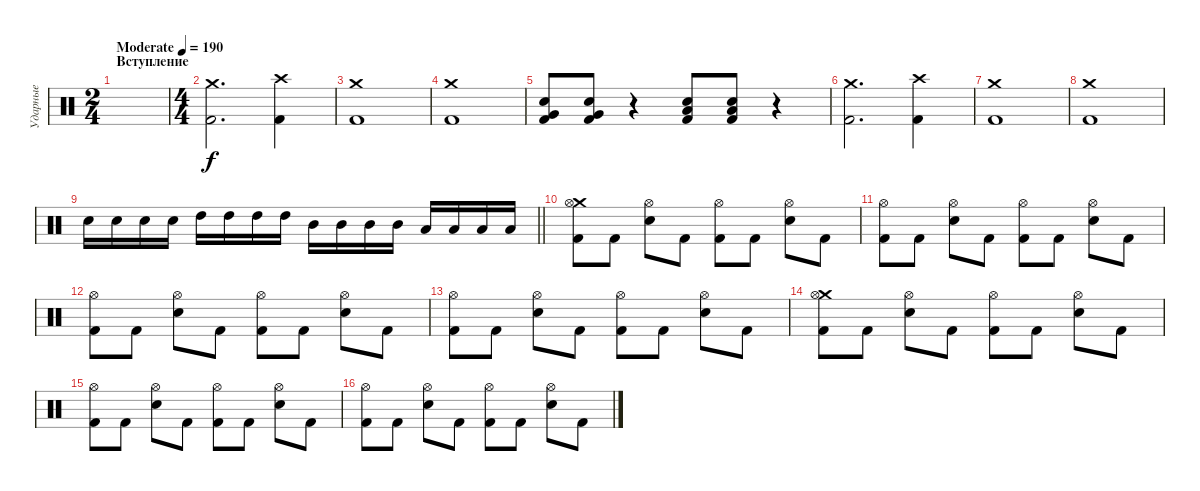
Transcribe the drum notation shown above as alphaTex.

\track ("Ударные" "Ударные") {instrument percussion}
\staff {score}
\articulation defaults
\ts (2 4)
\section ("" "Вступление")
\tempo (190 "Moderate")
\clef neutral
\ks c
|
\ts (4 4)
("Crash medium (hit)" "Kick (hit) 2").2{d} ("Crash high (hit)" "Kick (hit) 2").4 |
("Crash medium (hit)" "Kick (hit) 2").1 |
("Crash medium (hit)" "Kick (hit) 2").1 |
("Kick (hit) 2" "Very Low Tom (hit)" "Electric Snare (hit)").8 ("Kick (hit) 2" "Very Low Tom (hit)" "Electric Snare (hit)").8 r.4 ("Kick (hit) 2" "Low Floor Tom (hit)" "Electric Snare (hit)").8 ("Kick (hit) 2" "Low Floor Tom (hit)" "Electric Snare (hit)").8 r.4 |
("Crash medium (hit)" "Kick (hit) 2").2{d} ("Crash high (hit)" "Kick (hit) 2").4 |
("Crash medium (hit)" "Kick (hit) 2").1 |
("Crash medium (hit)" "Kick (hit) 2").1 |
\barLineRight lightlight "Electric Snare (hit)".16 "Electric Snare (hit)".16 "Electric Snare (hit)".16 "Electric Snare (hit)".16 "High Tom (hit)".16 "High Tom (hit)".16 "High Tom (hit)".16 "High Tom (hit)".16 "Mid Tom (hit)".16 "Mid Tom (hit)".16 "Mid Tom (hit)".16 "Mid Tom (hit)".16 "Low Tom (hit)".16 "Low Tom (hit)".16 "Low Tom (hit)".16 "Low Tom (hit)".16
|
("Crash medium (hit)" "Kick (hit) 2" "Hi-Hat (open)").8 "Kick (hit) 2".8 ("Electric Snare (hit)" "Hi-Hat (open)").8 "Kick (hit) 2".8 ("Kick (hit) 2" "Hi-Hat (open)").8 "Kick (hit) 2".8 ("Electric Snare (hit)" "Hi-Hat (open)").8 "Kick (hit) 2".8 |
("Kick (hit) 2" "Hi-Hat (open)").8 "Kick (hit) 2".8 ("Electric Snare (hit)" "Hi-Hat (open)").8 "Kick (hit) 2".8 ("Kick (hit) 2" "Hi-Hat (open)").8 "Kick (hit) 2".8 ("Electric Snare (hit)" "Hi-Hat (open)").8 "Kick (hit) 2".8 |
("Kick (hit) 2" "Hi-Hat (open)").8 "Kick (hit) 2".8 ("Electric Snare (hit)" "Hi-Hat (open)").8 "Kick (hit) 2".8 ("Kick (hit) 2" "Hi-Hat (open)").8 "Kick (hit) 2".8 ("Electric Snare (hit)" "Hi-Hat (open)").8 "Kick (hit) 2".8 |
("Kick (hit) 2" "Hi-Hat (open)").8 "Kick (hit) 2".8 ("Electric Snare (hit)" "Hi-Hat (open)").8 "Kick (hit) 2".8 ("Kick (hit) 2" "Hi-Hat (open)").8 "Kick (hit) 2".8 ("Electric Snare (hit)" "Hi-Hat (open)").8 "Kick (hit) 2".8 |
("Crash medium (hit)" "Kick (hit) 2" "Hi-Hat (open)").8 "Kick (hit) 2".8 ("Electric Snare (hit)" "Hi-Hat (open)").8 "Kick (hit) 2".8 ("Kick (hit) 2" "Hi-Hat (open)").8 "Kick (hit) 2".8 ("Electric Snare (hit)" "Hi-Hat (open)").8 "Kick (hit) 2".8 |
("Kick (hit) 2" "Hi-Hat (open)").8 "Kick (hit) 2".8 ("Electric Snare (hit)" "Hi-Hat (open)").8 "Kick (hit) 2".8 ("Kick (hit) 2" "Hi-Hat (open)").8 "Kick (hit) 2".8 ("Electric Snare (hit)" "Hi-Hat (open)").8 "Kick (hit) 2".8 |
("Kick (hit) 2" "Hi-Hat (open)").8 "Kick (hit) 2".8 ("Electric Snare (hit)" "Hi-Hat (open)").8 "Kick (hit) 2".8 ("Kick (hit) 2" "Hi-Hat (open)").8 "Kick (hit) 2".8 ("Electric Snare (hit)" "Hi-Hat (open)").8 "Kick (hit) 2".8
